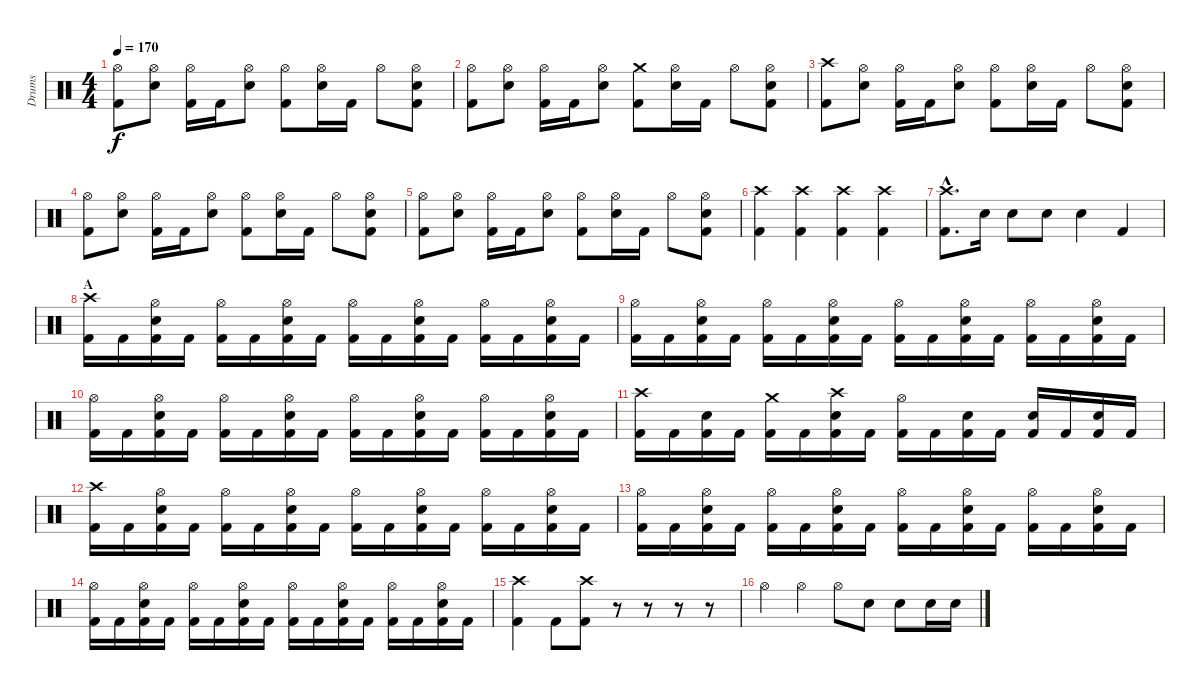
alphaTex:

\track ("Drums" "Drums") {instrument percussion}
\staff {score}
\articulation defaults
\ts (4 4)
\tempo 170
\clef neutral
\ks c
("Hi-Hat (open)" "Kick (hit) 2").8{dy f} ("Hi-Hat (open)" "Electric Snare (hit)").8 ("Hi-Hat (open)" "Kick (hit) 2").16 "Kick (hit) 2".16 ("Hi-Hat (open)" "Electric Snare (hit)").8 ("Hi-Hat (open)" "Kick (hit) 2").8 ("Hi-Hat (open)" "Electric Snare (hit)").16 "Kick (hit) 2".16 "Hi-Hat (open)".8 ("Hi-Hat (open)" "Electric Snare (hit)" "Kick (hit) 2").8 |
("Hi-Hat (open)" "Kick (hit) 2").8 ("Hi-Hat (open)" "Electric Snare (hit)").8 ("Hi-Hat (open)" "Kick (hit) 2").16 "Kick (hit) 2".16 ("Hi-Hat (open)" "Electric Snare (hit)").8 ("Crash medium (hit)" "Kick (hit) 2").8 ("Hi-Hat (open)" "Electric Snare (hit)").16 "Kick (hit) 2".16 "Hi-Hat (open)".8 ("Hi-Hat (open)" "Electric Snare (hit)" "Kick (hit) 2").8 |
("Crash high (hit)" "Kick (hit) 2").8 ("Hi-Hat (open)" "Electric Snare (hit)").8 ("Hi-Hat (open)" "Kick (hit) 2").16 "Kick (hit) 2".16 ("Hi-Hat (open)" "Electric Snare (hit)").8 ("Hi-Hat (open)" "Kick (hit) 2").8 ("Hi-Hat (open)" "Electric Snare (hit)").16 "Kick (hit) 2".16 "Hi-Hat (open)".8 ("Hi-Hat (open)" "Electric Snare (hit)" "Kick (hit) 2").8 |
("Hi-Hat (open)" "Kick (hit) 2").8 ("Hi-Hat (open)" "Electric Snare (hit)").8 ("Hi-Hat (open)" "Kick (hit) 2").16 "Kick (hit) 2".16 ("Hi-Hat (open)" "Electric Snare (hit)").8 ("Hi-Hat (open)" "Kick (hit) 2").8 ("Hi-Hat (open)" "Electric Snare (hit)").16 "Kick (hit) 2".16 "Hi-Hat (open)".8 ("Hi-Hat (open)" "Electric Snare (hit)" "Kick (hit) 2").8 |
("Hi-Hat (open)" "Kick (hit) 2").8 ("Hi-Hat (open)" "Electric Snare (hit)").8 ("Hi-Hat (open)" "Kick (hit) 2").16 "Kick (hit) 2".16 ("Hi-Hat (open)" "Electric Snare (hit)").8 ("Hi-Hat (open)" "Kick (hit) 2").8 ("Hi-Hat (open)" "Electric Snare (hit)").16 "Kick (hit) 2".16 "Hi-Hat (open)".8 ("Hi-Hat (open)" "Electric Snare (hit)" "Kick (hit) 2").8 |
("Crash high (hit)" "Kick (hit) 2").4 ("Crash high (hit)" "Kick (hit) 2").4 ("Crash high (hit)" "Kick (hit) 2").4 ("Crash high (hit)" "Kick (hit) 2").4 |
("Crash high (hit)"{hac} "Kick (hit) 2"{hac}).8{d} "Electric Snare (hit)".16 "Electric Snare (hit)".8 "Electric Snare (hit)".8 "Electric Snare (hit)".4 "Kick (hit) 2".4 |
\section ("" "A")
("Crash high (hit)" "Kick (hit) 2").16 "Kick (hit) 2".16 ("Hi-Hat (open)" "Electric Snare (hit)" "Kick (hit) 2").16 "Kick (hit) 2".16 ("Hi-Hat (open)" "Kick (hit) 2").16 "Kick (hit) 2".16 ("Hi-Hat (open)" "Electric Snare (hit)" "Kick (hit) 2").16 "Kick (hit) 2".16 ("Hi-Hat (open)" "Kick (hit) 2").16 "Kick (hit) 2".16 ("Hi-Hat (open)" "Electric Snare (hit)" "Kick (hit) 2").16 "Kick (hit) 2".16 ("Hi-Hat (open)" "Kick (hit) 2").16 "Kick (hit) 2".16 ("Hi-Hat (open)" "Electric Snare (hit)" "Kick (hit) 2").16 "Kick (hit) 2".16 |
("Hi-Hat (open)" "Kick (hit) 2").16 "Kick (hit) 2".16 ("Hi-Hat (open)" "Electric Snare (hit)" "Kick (hit) 2").16 "Kick (hit) 2".16 ("Hi-Hat (open)" "Kick (hit) 2").16 "Kick (hit) 2".16 ("Hi-Hat (open)" "Electric Snare (hit)" "Kick (hit) 2").16 "Kick (hit) 2".16 ("Hi-Hat (open)" "Kick (hit) 2").16 "Kick (hit) 2".16 ("Hi-Hat (open)" "Electric Snare (hit)" "Kick (hit) 2").16 "Kick (hit) 2".16 ("Hi-Hat (open)" "Kick (hit) 2").16 "Kick (hit) 2".16 ("Hi-Hat (open)" "Electric Snare (hit)" "Kick (hit) 2").16 "Kick (hit) 2".16 |
("Hi-Hat (open)" "Kick (hit) 2").16 "Kick (hit) 2".16 ("Hi-Hat (open)" "Electric Snare (hit)" "Kick (hit) 2").16 "Kick (hit) 2".16 ("Hi-Hat (open)" "Kick (hit) 2").16 "Kick (hit) 2".16 ("Hi-Hat (open)" "Electric Snare (hit)" "Kick (hit) 2").16 "Kick (hit) 2".16 ("Hi-Hat (open)" "Kick (hit) 2").16 "Kick (hit) 2".16 ("Hi-Hat (open)" "Electric Snare (hit)" "Kick (hit) 2").16 "Kick (hit) 2".16 ("Hi-Hat (open)" "Kick (hit) 2").16 "Kick (hit) 2".16 ("Hi-Hat (open)" "Electric Snare (hit)" "Kick (hit) 2").16 "Kick (hit) 2".16 |
("Crash high (hit)" "Kick (hit) 2").16 "Kick (hit) 2".16 ("Electric Snare (hit)" "Kick (hit) 2").16 "Kick (hit) 2".16 ("Crash medium (hit)" "Kick (hit) 2").16 "Kick (hit) 2".16 ("Crash high (hit)" "Electric Snare (hit)" "Kick (hit) 2").16 "Kick (hit) 2".16 ("Hi-Hat (open)" "Kick (hit) 2").16 "Kick (hit) 2".16 ("Electric Snare (hit)" "Kick (hit) 2").16 "Kick (hit) 2".16 ("Electric Snare (hit)" "Kick (hit) 2").16 "Kick (hit) 2".16 ("Electric Snare (hit)" "Kick (hit) 2").16 "Kick (hit) 2".16 |
("Crash high (hit)" "Kick (hit) 2").16 "Kick (hit) 2".16 ("Hi-Hat (open)" "Electric Snare (hit)" "Kick (hit) 2").16 "Kick (hit) 2".16 ("Hi-Hat (open)" "Kick (hit) 2").16 "Kick (hit) 2".16 ("Hi-Hat (open)" "Electric Snare (hit)" "Kick (hit) 2").16 "Kick (hit) 2".16 ("Hi-Hat (open)" "Kick (hit) 2").16 "Kick (hit) 2".16 ("Hi-Hat (open)" "Electric Snare (hit)" "Kick (hit) 2").16 "Kick (hit) 2".16 ("Hi-Hat (open)" "Kick (hit) 2").16 "Kick (hit) 2".16 ("Hi-Hat (open)" "Electric Snare (hit)" "Kick (hit) 2").16 "Kick (hit) 2".16 |
("Hi-Hat (open)" "Kick (hit) 2").16 "Kick (hit) 2".16 ("Hi-Hat (open)" "Electric Snare (hit)" "Kick (hit) 2").16 "Kick (hit) 2".16 ("Hi-Hat (open)" "Kick (hit) 2").16 "Kick (hit) 2".16 ("Hi-Hat (open)" "Electric Snare (hit)" "Kick (hit) 2").16 "Kick (hit) 2".16 ("Hi-Hat (open)" "Kick (hit) 2").16 "Kick (hit) 2".16 ("Hi-Hat (open)" "Electric Snare (hit)" "Kick (hit) 2").16 "Kick (hit) 2".16 ("Hi-Hat (open)" "Kick (hit) 2").16 "Kick (hit) 2".16 ("Hi-Hat (open)" "Electric Snare (hit)" "Kick (hit) 2").16 "Kick (hit) 2".16 |
("Hi-Hat (open)" "Kick (hit) 2").16 "Kick (hit) 2".16 ("Hi-Hat (open)" "Electric Snare (hit)" "Kick (hit) 2").16 "Kick (hit) 2".16 ("Hi-Hat (open)" "Kick (hit) 2").16 "Kick (hit) 2".16 ("Hi-Hat (open)" "Electric Snare (hit)" "Kick (hit) 2").16 "Kick (hit) 2".16 ("Hi-Hat (open)" "Kick (hit) 2").16 "Kick (hit) 2".16 ("Hi-Hat (open)" "Electric Snare (hit)" "Kick (hit) 2").16 "Kick (hit) 2".16 ("Hi-Hat (open)" "Kick (hit) 2").16 "Kick (hit) 2".16 ("Hi-Hat (open)" "Electric Snare (hit)" "Kick (hit) 2").16 "Kick (hit) 2".16 |
("Crash high (hit)" "Kick (hit) 2").4 "Kick (hit) 2".8 ("Crash high (hit)" "Kick (hit) 2").8 r.8 r.8 r.8 r.8 |
"Hi-Hat (open)".4 "Hi-Hat (open)".4 "Hi-Hat (open)".8 "Electric Snare (hit)".8 "Electric Snare (hit)".8 "Electric Snare (hit)".16 "Electric Snare (hit)".16
